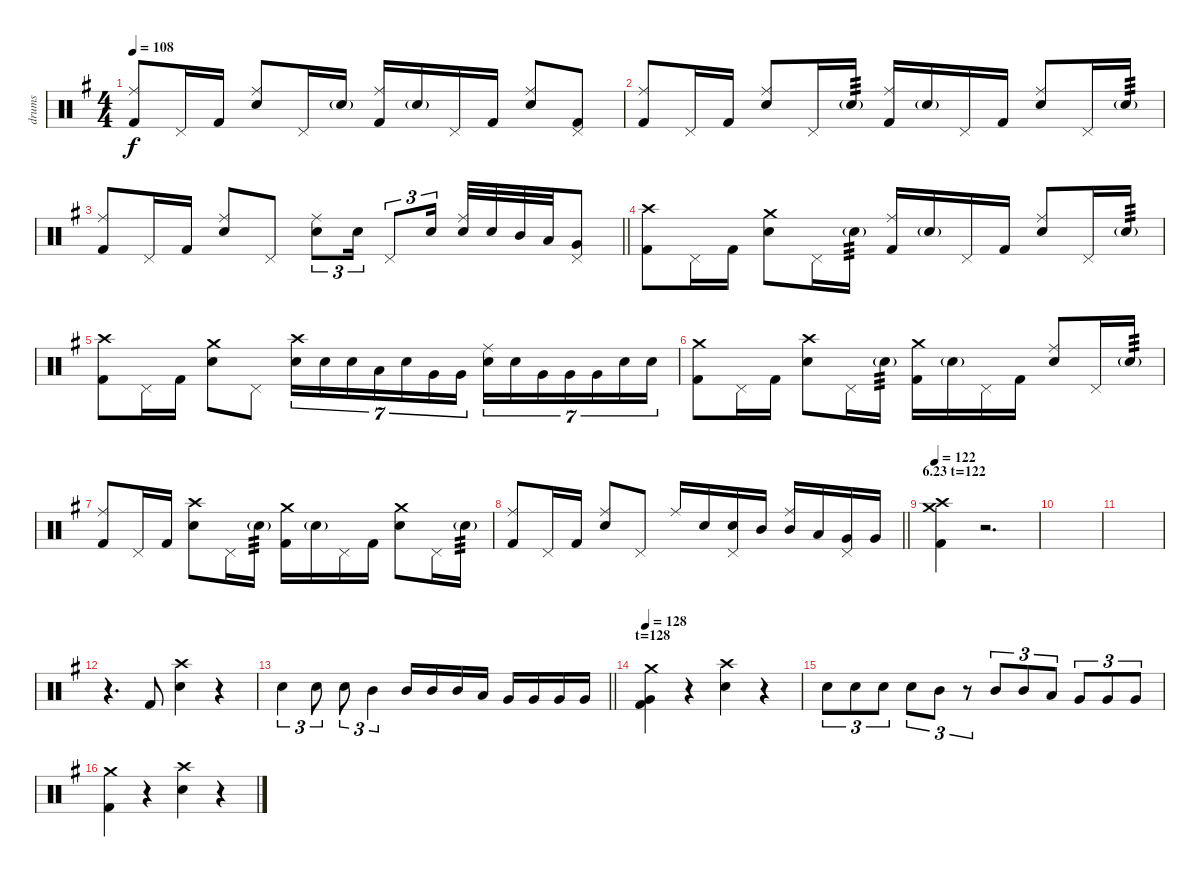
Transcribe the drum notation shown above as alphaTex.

\track ("drums" "drums") {instrument percussion}
\staff {score}
\articulation defaults
\ts (4 4)
\tempo 108
\clef neutral
\ks g
("Ride (middle)" "Kick (hit) 2").8{dy f} "Pedal Hi-Hat (hit)".16 "Kick (hit) 2".16 ("Ride (middle)" "Electric Snare (hit)").8 "Pedal Hi-Hat (hit)".16 "Electric Snare (hit)"{g}.16 ("Ride (middle)" "Kick (hit) 2").16 "Electric Snare (hit)"{g}.16 "Pedal Hi-Hat (hit)".16 "Kick (hit) 2".16 ("Ride (middle)" "Electric Snare (hit)").8 ("Pedal Hi-Hat (hit)" "Kick (hit) 2").8 |
("Ride (middle)" "Kick (hit) 2").8 "Pedal Hi-Hat (hit)".16 "Kick (hit) 2".16 ("Ride (middle)" "Electric Snare (hit)").8 "Pedal Hi-Hat (hit)".16 "Electric Snare (hit)"{g}.16{tp 3} ("Ride (middle)" "Kick (hit) 2").16 "Electric Snare (hit)"{g}.16 "Pedal Hi-Hat (hit)".16 "Kick (hit) 2".16 ("Ride (middle)" "Electric Snare (hit)").8 "Pedal Hi-Hat (hit)".16 "Electric Snare (hit)"{g}.16{tp 3} |
\barLineRight lightlight
("Ride (middle)" "Kick (hit) 2").8 "Pedal Hi-Hat (hit)".16 "Kick (hit) 2".16 ("Ride (middle)" "Electric Snare (hit)").8 "Pedal Hi-Hat (hit)".8 ("Ride (middle)" "Electric Snare (hit)").8{tu (3 2)} "Electric Snare (hit)".16{tu (3 2)} "Pedal Hi-Hat (hit)".8{tu (3 2)} "Electric Snare (hit)".16{tu (3 2)} ("Ride (middle)" "Electric Snare (hit)").32 "Electric Snare (hit)".32 "Mid Tom (hit)".32 "Low Tom (hit)".32 ("Pedal Hi-Hat (hit)" "Very Low Tom (hit)").8 |
("Crash high (hit)" "Kick (hit) 2").8 "Pedal Hi-Hat (hit)".16 "Kick (hit) 2".16 ("Crash medium (hit)" "Electric Snare (hit)").8 "Pedal Hi-Hat (hit)".16 "Electric Snare (hit)"{g}.16{tp 3} ("Ride (middle)" "Kick (hit) 2").16 "Electric Snare (hit)"{g}.16 "Pedal Hi-Hat (hit)".16 "Kick (hit) 2".16 ("Ride (middle)" "Electric Snare (hit)").8 "Pedal Hi-Hat (hit)".16 "Electric Snare (hit)"{g}.16{tp 3} |
("Crash high (hit)" "Kick (hit) 2").8 "Pedal Hi-Hat (hit)".16 "Kick (hit) 2".16 ("Crash medium (hit)" "Electric Snare (hit)").8 "Pedal Hi-Hat (hit)".8 ("Crash high (hit)" "Electric Snare (hit)").16{tu (7 4)} "Electric Snare (hit)".16{tu (7 4)} "Electric Snare (hit)".16{tu (7 4)} "Low Tom (hit)".16{tu (7 4)} "Electric Snare (hit)".16{tu (7 4)} "Very Low Tom (hit)".16{tu (7 4)} "Very Low Tom (hit)".16{tu (7 4)} ("Ride (middle)" "Electric Snare (hit)").16{tu (7 4)} "Electric Snare (hit)".16{tu (7 4)} "Very Low Tom (hit)".16{tu (7 4)} "Very Low Tom (hit)".16{tu (7 4)} "Very Low Tom (hit)".16{tu (7 4)} "Electric Snare (hit)".16{tu (7 4)} "Electric Snare (hit)".16{tu (7 4)} |
("Crash medium (hit)" "Kick (hit) 2").8 "Pedal Hi-Hat (hit)".16 "Kick (hit) 2".16 ("Crash high (hit)" "Electric Snare (hit)").8 "Pedal Hi-Hat (hit)".16 "Electric Snare (hit)"{g}.16{tp 3} ("Crash medium (hit)" "Kick (hit) 2").16 "Electric Snare (hit)"{g}.16 "Pedal Hi-Hat (hit)".16 "Kick (hit) 2".16 ("Ride (middle)" "Electric Snare (hit)").8 "Pedal Hi-Hat (hit)".16 "Electric Snare (hit)"{g}.16{tp 3} |
("Ride (middle)" "Kick (hit) 2").8 "Pedal Hi-Hat (hit)".16 "Kick (hit) 2".16 ("Crash high (hit)" "Electric Snare (hit)").8 "Pedal Hi-Hat (hit)".16 "Electric Snare (hit)"{g}.16{tp 3} ("Crash medium (hit)" "Kick (hit) 2").16 "Electric Snare (hit)"{g}.16 "Pedal Hi-Hat (hit)".16 "Kick (hit) 2".16 ("Crash medium (hit)" "Electric Snare (hit)").8 "Pedal Hi-Hat (hit)".16 "Electric Snare (hit)"{g}.16{tp 3} |
\barLineRight lightlight
("Ride (middle)" "Kick (hit) 2").8 "Pedal Hi-Hat (hit)".16 "Kick (hit) 2".16 ("Ride (middle)" "Electric Snare (hit)").8 "Pedal Hi-Hat (hit)".8 "Ride (middle)".16 "Electric Snare (hit)".16 ("Pedal Hi-Hat (hit)" "Electric Snare (hit)").16 "Mid Tom (hit)".16 ("Ride (middle)" "Mid Tom (hit)").16 "Low Tom (hit)".16 ("Pedal Hi-Hat (hit)" "Very Low Tom (hit)").16 "Very Low Tom (hit)".16 |
\section ("" "6.23 t=122")
\tempo 122
("Crash high (hit)" "Crash medium (hit)" "Kick (hit) 2").4 r.2{d} |
|
|
r.4{d} "Kick (hit) 2".8 ("Crash high (hit)" "Electric Snare (hit)").4 r.4 |
\barLineRight lightlight "Electric Snare (hit)".4{tu (3 2)} "Electric Snare (hit)".8{tu (3 2)} "Electric Snare (hit)".8{tu (3 2)} "Mid Tom (hit)".4{tu (3 2)} "Mid Tom (hit)".16 "Mid Tom (hit)".16 "Mid Tom (hit)".16 "Low Tom (hit)".16 "Very Low Tom (hit)".16 "Very Low Tom (hit)".16 "Very Low Tom (hit)".16 "Very Low Tom (hit)".16
|
\section ("" "t=128")
\tempo 128
("Crash medium (hit)" "Very Low Tom (hit)" "Kick (hit) 2").4 r.4 ("Crash high (hit)" "Electric Snare (hit)").4 r.4 |
"Electric Snare (hit)".8{tu (3 2)} "Electric Snare (hit)".8{tu (3 2)} "Electric Snare (hit)".8{tu (3 2)} "Electric Snare (hit)".8{tu (3 2)} "Mid Tom (hit)".8{tu (3 2)} r.8{tu (3 2)} "Mid Tom (hit)".8{tu (3 2)} "Mid Tom (hit)".8{tu (3 2)} "Low Tom (hit)".8{tu (3 2)} "Very Low Tom (hit)".8{tu (3 2)} "Very Low Tom (hit)".8{tu (3 2)} "Very Low Tom (hit)".8{tu (3 2)} |
("Crash medium (hit)" "Kick (hit) 2").4 r.4 ("Crash high (hit)" "Electric Snare (hit)").4 r.4
